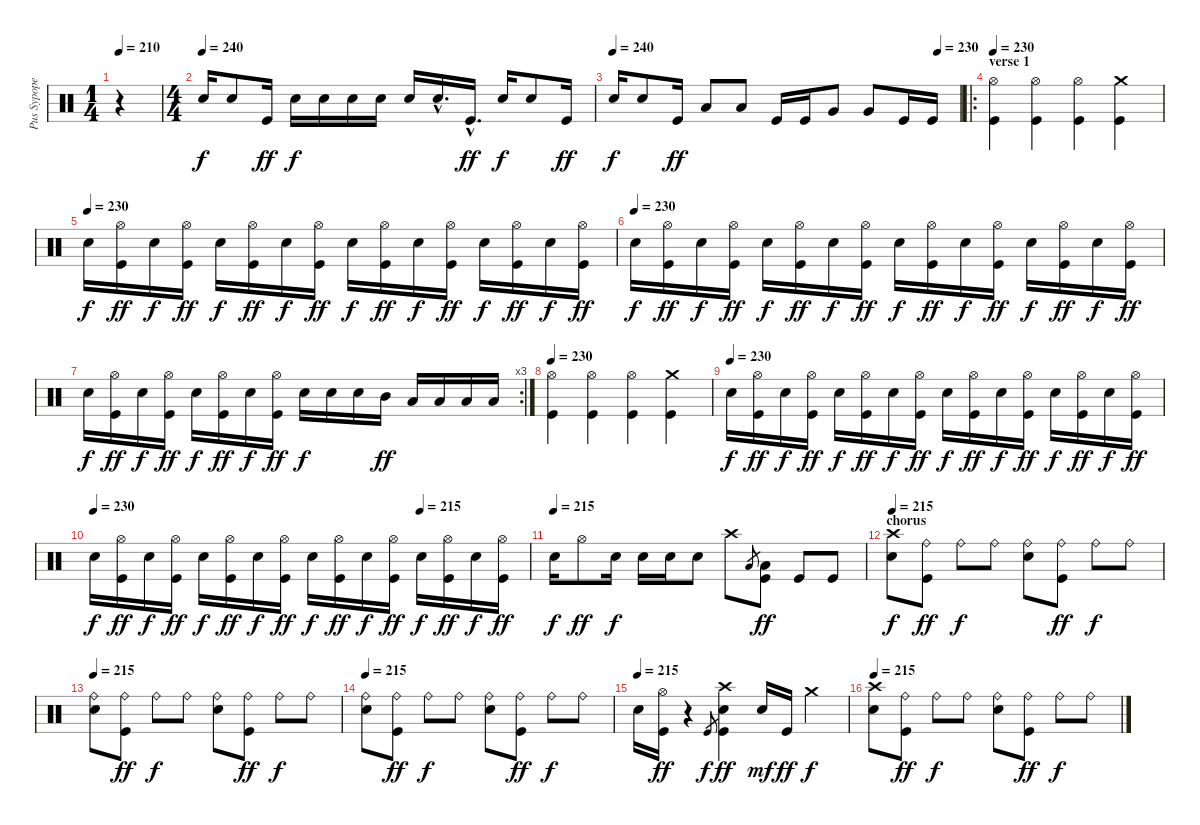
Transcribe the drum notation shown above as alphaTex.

\track ("Pus Sypope" "Pus Sypope") {instrument percussion}
\staff {score}
\articulation defaults
\ts (1 4)
\tempo 210
\tempo 240
\tempo 210
\clef neutral
\ks c
r.4{dy f} |
\ts (4 4)
\tempo (240)
"Snare (hit) 2".16 "Snare (hit) 2".8 "Kick (hit)".16{dy ff} "Snare (hit) 2".16{dy f} "Snare (hit) 2".16 "Snare (hit) 2".16 "Snare (hit) 2".16 "Snare (hit) 2".16 "Snare (hit) 2"{hac}.16{d} "Kick (hit)"{hac}.16{d dy ff} "Snare (hit) 2".16{dy f} "Snare (hit) 2".8 "Kick (hit)".16{dy ff} |
\tempo 240
\tempo (230 0.9375)
"Snare (hit) 2".16{dy f} "Snare (hit) 2".8 "Kick (hit)".16{dy ff} "Low Tom (hit)".8 "Low Tom (hit)".8 "Kick (hit)".16 "Kick (hit)".16 "Very Low Tom (hit)".8 "Very Low Tom (hit)".8 "Kick (hit)".16 "Kick (hit)".16 |
\ro
\section ("" "verse 1")
\tempo 230
("Hi-Hat (open)" "Kick (hit)").4 ("Hi-Hat (open)" "Kick (hit)").4 ("Hi-Hat (open)" "Kick (hit)").4 ("Crash medium (hit)" "Kick (hit)").4 |
\tempo (230)
"Snare (hit) 2".16{dy f} ("Hi-Hat (open)" "Kick (hit)").16{dy ff} "Snare (hit) 2".16{dy f} ("Hi-Hat (open)" "Kick (hit)").16{dy ff} "Snare (hit) 2".16{dy f} ("Hi-Hat (open)" "Kick (hit)").16{dy ff} "Snare (hit) 2".16{dy f} ("Hi-Hat (open)" "Kick (hit)").16{dy ff} "Snare (hit) 2".16{dy f} ("Hi-Hat (open)" "Kick (hit)").16{dy ff} "Snare (hit) 2".16{dy f} ("Hi-Hat (open)" "Kick (hit)").16{dy ff} "Snare (hit) 2".16{dy f} ("Hi-Hat (open)" "Kick (hit)").16{dy ff} "Snare (hit) 2".16{dy f} ("Hi-Hat (open)" "Kick (hit)").16{dy ff} |
\tempo (230)
"Snare (hit) 2".16{dy f} ("Hi-Hat (open)" "Kick (hit)").16{dy ff} "Snare (hit) 2".16{dy f} ("Hi-Hat (open)" "Kick (hit)").16{dy ff} "Snare (hit) 2".16{dy f} ("Hi-Hat (open)" "Kick (hit)").16{dy ff} "Snare (hit) 2".16{dy f} ("Hi-Hat (open)" "Kick (hit)").16{dy ff} "Snare (hit) 2".16{dy f} ("Hi-Hat (open)" "Kick (hit)").16{dy ff} "Snare (hit) 2".16{dy f} ("Hi-Hat (open)" "Kick (hit)").16{dy ff} "Snare (hit) 2".16{dy f} ("Hi-Hat (open)" "Kick (hit)").16{dy ff} "Snare (hit) 2".16{dy f} ("Hi-Hat (open)" "Kick (hit)").16{dy ff} |
\rc 3 "Snare (hit) 2".16{dy f}
("Hi-Hat (open)" "Kick (hit)").16{dy ff} "Snare (hit) 2".16{dy f} ("Hi-Hat (open)" "Kick (hit)").16{dy ff} "Snare (hit) 2".16{dy f} ("Hi-Hat (open)" "Kick (hit)").16{dy ff} "Snare (hit) 2".16{dy f} ("Hi-Hat (open)" "Kick (hit)").16{dy ff} "Snare (hit) 2".16{dy f} "Snare (hit) 2".16 "Snare (hit) 2".16 "Mid Tom (hit)".16{dy ff} "Low Tom (hit)".16 "Low Tom (hit)".16 "Low Tom (hit)".16 "Low Tom (hit)".16 |
\tempo 230
("Hi-Hat (open)" "Kick (hit)").4 ("Hi-Hat (open)" "Kick (hit)").4 ("Hi-Hat (open)" "Kick (hit)").4 ("Crash medium (hit)" "Kick (hit)").4 |
\tempo (230)
"Snare (hit) 2".16{dy f} ("Hi-Hat (open)" "Kick (hit)").16{dy ff} "Snare (hit) 2".16{dy f} ("Hi-Hat (open)" "Kick (hit)").16{dy ff} "Snare (hit) 2".16{dy f} ("Hi-Hat (open)" "Kick (hit)").16{dy ff} "Snare (hit) 2".16{dy f} ("Hi-Hat (open)" "Kick (hit)").16{dy ff} "Snare (hit) 2".16{dy f} ("Hi-Hat (open)" "Kick (hit)").16{dy ff} "Snare (hit) 2".16{dy f} ("Hi-Hat (open)" "Kick (hit)").16{dy ff} "Snare (hit) 2".16{dy f} ("Hi-Hat (open)" "Kick (hit)").16{dy ff} "Snare (hit) 2".16{dy f} ("Hi-Hat (open)" "Kick (hit)").16{dy ff} |
\tempo 230
\tempo (215 0.75)
"Snare (hit) 2".16{dy f} ("Hi-Hat (open)" "Kick (hit)").16{dy ff} "Snare (hit) 2".16{dy f} ("Hi-Hat (open)" "Kick (hit)").16{dy ff} "Snare (hit) 2".16{dy f} ("Hi-Hat (open)" "Kick (hit)").16{dy ff} "Snare (hit) 2".16{dy f} ("Hi-Hat (open)" "Kick (hit)").16{dy ff} "Snare (hit) 2".16{dy f} ("Hi-Hat (open)" "Kick (hit)").16{dy ff} "Snare (hit) 2".16{dy f} ("Hi-Hat (open)" "Kick (hit)").16{dy ff} "Snare (hit) 2".16{dy f} ("Hi-Hat (open)" "Kick (hit)").16{dy ff} "Snare (hit) 2".16{dy f} ("Hi-Hat (open)" "Kick (hit)").16{dy ff} |
\tempo (215)
"Snare (hit) 2".16{dy f} "Hi-Hat (open)".8{dy ff} "Snare (hit) 2".16{dy f} "Snare (hit) 2".16 "Snare (hit) 2".16 "Snare (hit) 2".8 "Crash high (hit)".8 "Low Floor Tom (hit)".8{gr} ("Low Floor Tom (hit)" "Kick (hit)").8{dy ff} "Kick (hit)".8 "Kick (hit)".8 |
\section ("" "chorus")
\tempo 215
("Crash high (hit)" "Snare (hit) 2").8{dy f} ("Ride (bell)" "Kick (hit)").8{dy ff} "Ride (bell)".8{dy f} "Ride (bell)".8 ("Ride (bell)" "Snare (hit) 2").8 ("Ride (bell)" "Kick (hit)").8{dy ff} "Ride (bell)".8{dy f} "Ride (bell)".8 |
\tempo 215
("Ride (bell)" "Snare (hit) 2").8 ("Ride (bell)" "Kick (hit)").8{dy ff} "Ride (bell)".8{dy f} "Ride (bell)".8 ("Ride (bell)" "Snare (hit) 2").8 ("Ride (bell)" "Kick (hit)").8{dy ff} "Ride (bell)".8{dy f} "Ride (bell)".8 |
\tempo 215
("Ride (bell)" "Snare (hit) 2").8 ("Ride (bell)" "Kick (hit)").8{dy ff} "Ride (bell)".8{dy f} "Ride (bell)".8 ("Ride (bell)" "Snare (hit) 2").8 ("Ride (bell)" "Kick (hit)").8{dy ff} "Ride (bell)".8{dy f} "Ride (bell)".8 |
\tempo (215)
"Snare (hit) 2".16 ("Hi-Hat (open)" "Kick (hit)").16{dy ff} r.4 "Kick (hit)".8{gr dy f} ("Crash high (hit)" "Snare (hit) 2" "Kick (hit)").4{dy ff} "Snare (hit) 2".16{dy mf} "Kick (hit)".16{dy ff} "Crash medium (hit)".4{dy f} |
\tempo 215
("Crash high (hit)" "Snare (hit) 2").8 ("Ride (bell)" "Kick (hit)").8{dy ff} "Ride (bell)".8{dy f} "Ride (bell)".8 ("Ride (bell)" "Snare (hit) 2").8 ("Ride (bell)" "Kick (hit)").8{dy ff} "Ride (bell)".8{dy f} "Ride (bell)".8
